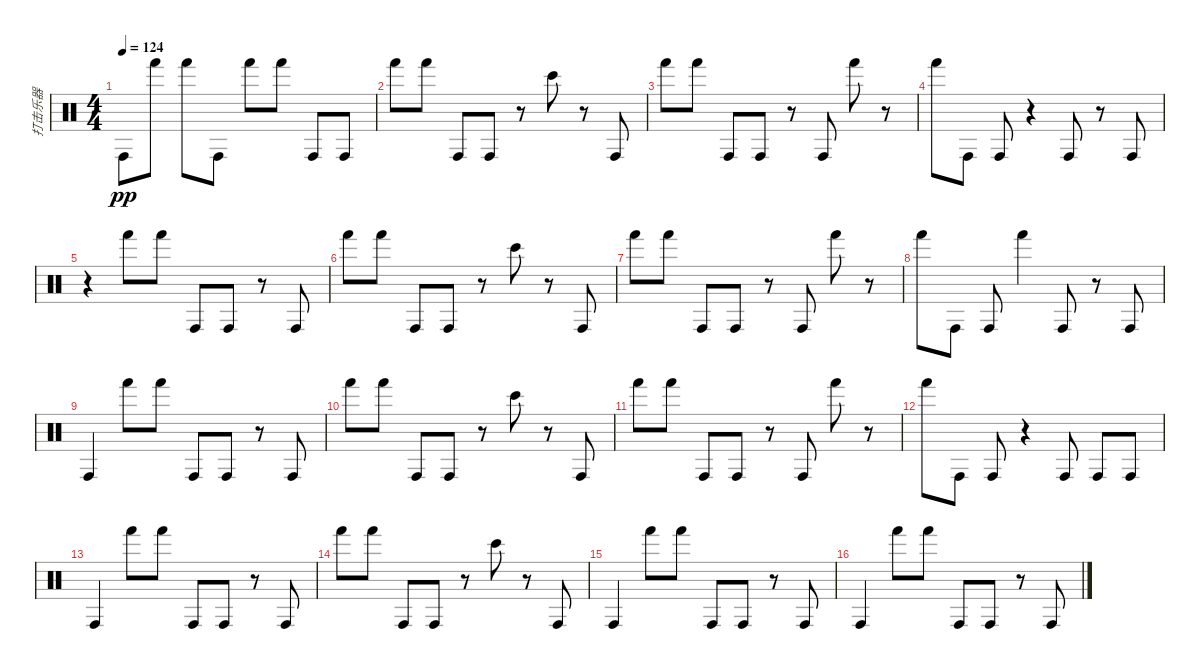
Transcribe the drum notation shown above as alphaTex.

\track ("打击乐器" "打击乐器") {instrument percussion}
\staff {score}
\articulation defaults
\ts (4 4)
\tempo 124
\clef neutral
\ks c "Conga high (hit)".8{dy pp} "Hand (hit)".8 "Hand (hit)".8 "Conga high (hit)".8 "Hand (hit)".8 "Hand (hit)".8 "Conga high (hit)".8 "Conga high (hit)".8
|
"Hand (hit)".8 "Hand (hit)".8 "Conga high (hit)".8 "Conga high (hit)".8 r.8 "Bongo High (hit)".8 r.8 "Conga high (hit)".8 |
"Hand (hit)".8 "Hand (hit)".8 "Conga high (hit)".8 "Conga high (hit)".8 r.8 "Conga high (hit)".8 "Hand (hit)".8 r.8 |
"Hand (hit)".8 "Conga high (hit)".8 "Conga high (hit)".8 r.4 "Conga high (hit)".8 r.8 "Conga high (hit)".8 |
r.4 "Hand (hit)".8 "Hand (hit)".8 "Conga high (hit)".8 "Conga high (hit)".8 r.8 "Conga high (hit)".8 |
"Hand (hit)".8 "Hand (hit)".8 "Conga high (hit)".8 "Conga high (hit)".8 r.8 "Bongo High (hit)".8 r.8 "Conga high (hit)".8 |
"Hand (hit)".8 "Hand (hit)".8 "Conga high (hit)".8 "Conga high (hit)".8 r.8 "Conga high (hit)".8 "Hand (hit)".8 r.8 |
"Hand (hit)".8 "Conga high (hit)".8 "Conga high (hit)".8 "Hand (hit)".4 "Conga high (hit)".8 r.8 "Conga high (hit)".8 |
"Conga high (hit)".4 "Hand (hit)".8 "Hand (hit)".8 "Conga high (hit)".8 "Conga high (hit)".8 r.8 "Conga high (hit)".8 |
"Hand (hit)".8 "Hand (hit)".8 "Conga high (hit)".8 "Conga high (hit)".8 r.8 "Bongo High (hit)".8 r.8 "Conga high (hit)".8 |
"Hand (hit)".8 "Hand (hit)".8 "Conga high (hit)".8 "Conga high (hit)".8 r.8 "Conga high (hit)".8 "Hand (hit)".8 r.8 |
"Hand (hit)".8 "Conga high (hit)".8 "Conga high (hit)".8 r.4 "Conga high (hit)".8 "Conga high (hit)".8 "Conga high (hit)".8 |
"Conga high (hit)".4 "Hand (hit)".8 "Hand (hit)".8 "Conga high (hit)".8 "Conga high (hit)".8 r.8 "Conga high (hit)".8 |
"Hand (hit)".8 "Hand (hit)".8 "Conga high (hit)".8 "Conga high (hit)".8 r.8 "Bongo High (hit)".8 r.8 "Conga high (hit)".8 |
"Conga high (hit)".4 "Hand (hit)".8 "Hand (hit)".8 "Conga high (hit)".8 "Conga high (hit)".8 r.8 "Conga high (hit)".8 |
"Conga high (hit)".4 "Hand (hit)".8 "Hand (hit)".8 "Conga high (hit)".8 "Conga high (hit)".8 r.8 "Conga high (hit)".8
